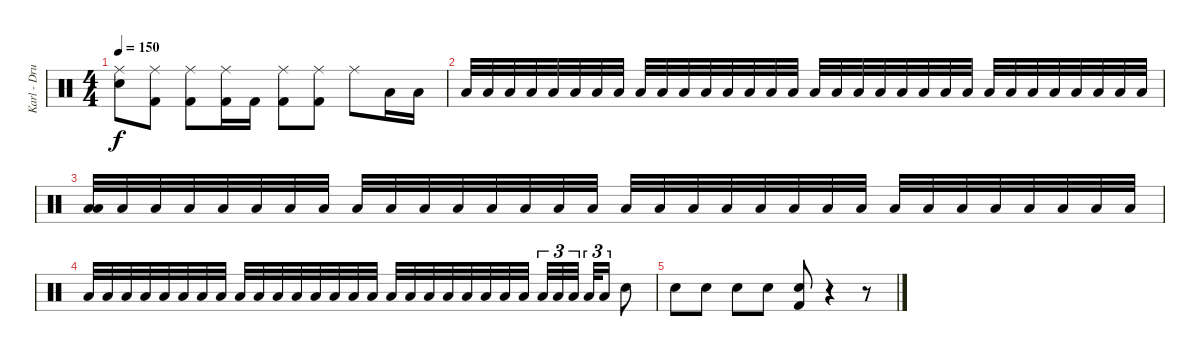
\track ("Karl - Drums" "Karl - Dru") {instrument percussion}
\staff {score}
\articulation defaults
\ts (4 4)
\tempo 150
\clef neutral
\ks c
("Ride (middle)" "Snare (hit) 2").8{dy f} ("Ride (middle)" "Kick (hit) 2").8 ("Ride (middle)" "Kick (hit) 2").8 ("Ride (middle)" "Kick (hit) 2").16 "Kick (hit) 2".16 ("Ride (middle)" "Kick (hit) 2").8 ("Ride (middle)" "Kick (hit) 2").8 "Ride (middle)".8 "Low Floor Tom (hit)".16 "Low Floor Tom (hit)".16 |
"Low Floor Tom (hit)".32 "Low Floor Tom (hit)".32 "Low Floor Tom (hit)".32 "Low Floor Tom (hit)".32 "Low Floor Tom (hit)".32 "Low Floor Tom (hit)".32 "Low Floor Tom (hit)".32 "Low Floor Tom (hit)".32 "Low Floor Tom (hit)".32 "Low Floor Tom (hit)".32 "Low Floor Tom (hit)".32 "Low Floor Tom (hit)".32 "Low Floor Tom (hit)".32 "Low Floor Tom (hit)".32 "Low Floor Tom (hit)".32 "Low Floor Tom (hit)".32 "Low Floor Tom (hit)".32 "Low Floor Tom (hit)".32 "Low Floor Tom (hit)".32 "Low Floor Tom (hit)".32 "Low Floor Tom (hit)".32 "Low Floor Tom (hit)".32 "Low Floor Tom (hit)".32 "Low Floor Tom (hit)".32 "Low Floor Tom (hit)".32 "Low Floor Tom (hit)".32 "Low Floor Tom (hit)".32 "Low Floor Tom (hit)".32 "Low Floor Tom (hit)".32 "Low Floor Tom (hit)".32 "Low Floor Tom (hit)".32 "Low Floor Tom (hit)".32 |
("Low Floor Tom (hit)" "Low Floor Tom (hit)").32 "Low Floor Tom (hit)".32 "Low Floor Tom (hit)".32 "Low Floor Tom (hit)".32 "Low Floor Tom (hit)".32 "Low Floor Tom (hit)".32 "Low Floor Tom (hit)".32 "Low Floor Tom (hit)".32 "Low Floor Tom (hit)".32 "Low Floor Tom (hit)".32 "Low Floor Tom (hit)".32 "Low Floor Tom (hit)".32 "Low Floor Tom (hit)".32 "Low Floor Tom (hit)".32 "Low Floor Tom (hit)".32 "Low Floor Tom (hit)".32 "Low Floor Tom (hit)".32 "Low Floor Tom (hit)".32 "Low Floor Tom (hit)".32 "Low Floor Tom (hit)".32 "Low Floor Tom (hit)".32 "Low Floor Tom (hit)".32 "Low Floor Tom (hit)".32 "Low Floor Tom (hit)".32 "Low Floor Tom (hit)".32 "Low Floor Tom (hit)".32 "Low Floor Tom (hit)".32 "Low Floor Tom (hit)".32 "Low Floor Tom (hit)".32 "Low Floor Tom (hit)".32 "Low Floor Tom (hit)".32 "Low Floor Tom (hit)".32 |
"Low Floor Tom (hit)".32 "Low Floor Tom (hit)".32 "Low Floor Tom (hit)".32 "Low Floor Tom (hit)".32 "Low Floor Tom (hit)".32 "Low Floor Tom (hit)".32 "Low Floor Tom (hit)".32 "Low Floor Tom (hit)".32 "Low Floor Tom (hit)".32 "Low Floor Tom (hit)".32 "Low Floor Tom (hit)".32 "Low Floor Tom (hit)".32 "Low Floor Tom (hit)".32 "Low Floor Tom (hit)".32 "Low Floor Tom (hit)".32 "Low Floor Tom (hit)".32 "Low Floor Tom (hit)".32 "Low Floor Tom (hit)".32 "Low Floor Tom (hit)".32 "Low Floor Tom (hit)".32 "Low Floor Tom (hit)".32 "Low Floor Tom (hit)".32 "Low Floor Tom (hit)".32 "Low Floor Tom (hit)".32 "Low Floor Tom (hit)".32{tu (3 2)} "Low Floor Tom (hit)".32{tu (3 2)} "Low Floor Tom (hit)".32{tu (3 2)} "Low Floor Tom (hit)".32{tu (3 2)} "Low Floor Tom (hit)".16{tu (3 2)} "Snare (hit) 2".8 |
"Snare (hit) 2".8 "Snare (hit) 2".8 "Snare (hit) 2".8 "Snare (hit) 2".8 ("Kick (hit) 2" "Snare (hit) 2").8 r.4 r.8
